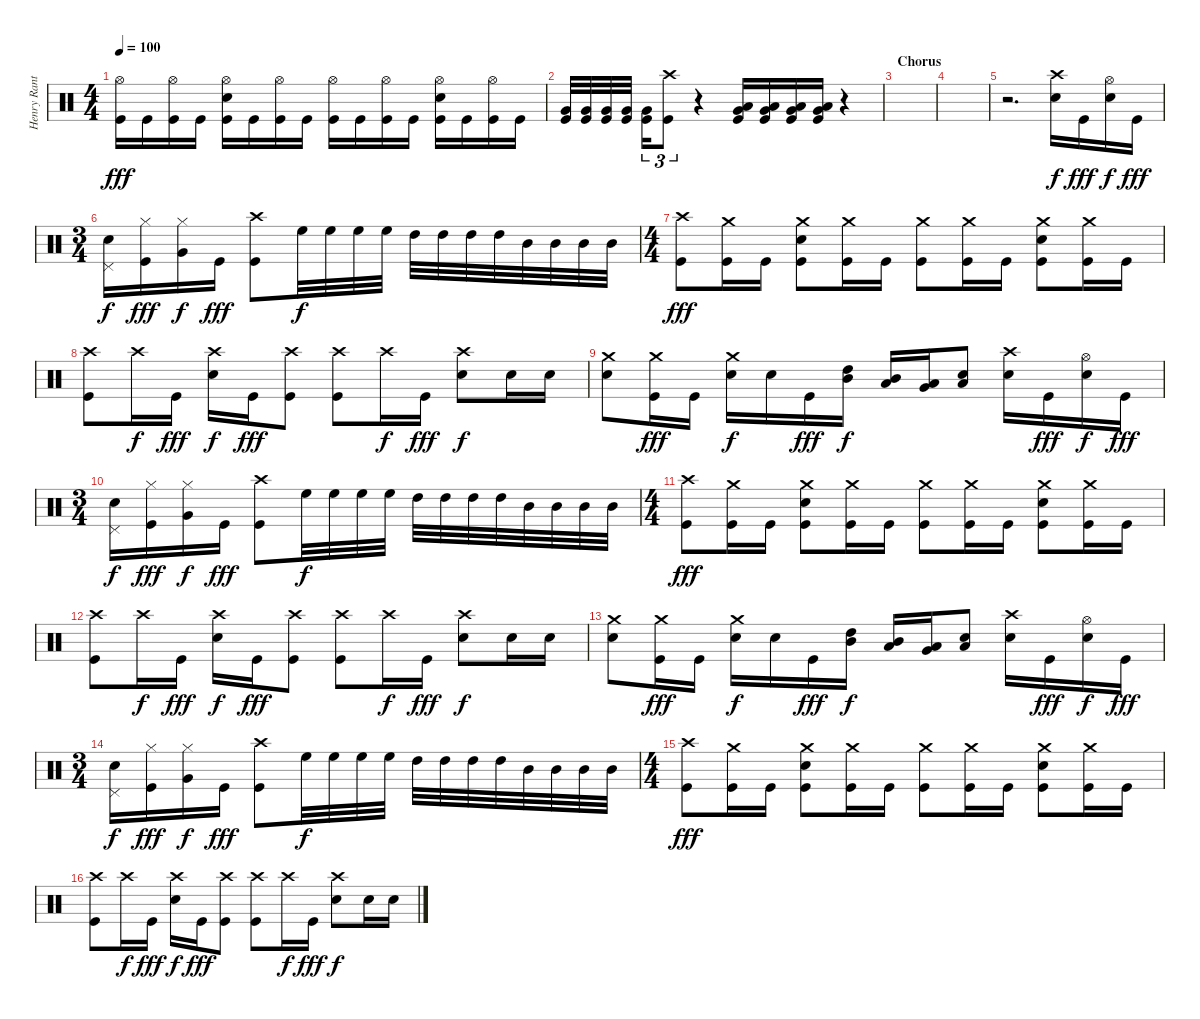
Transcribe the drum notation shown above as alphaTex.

\track ("Henry Ranta" "Henry Rant") {instrument percussion}
\staff {score}
\articulation defaults
\ts (4 4)
\tempo 100
\clef neutral
\ks c
("Hi-Hat (open)" "Kick (hit)").16{dy fff} "Kick (hit)".16 ("Hi-Hat (open)" "Kick (hit)").16 "Kick (hit)".16 ("Hi-Hat (open)" "Electric Snare (hit)" "Kick (hit)").16 "Kick (hit)".16 ("Hi-Hat (open)" "Kick (hit)").16 "Kick (hit)".16 ("Hi-Hat (open)" "Kick (hit)").16 "Kick (hit)".16 ("Hi-Hat (open)" "Kick (hit)").16 "Kick (hit)".16 ("Hi-Hat (open)" "Electric Snare (hit)" "Kick (hit)").16 "Kick (hit)".16 ("Hi-Hat (open)" "Kick (hit)").16 "Kick (hit)".16 |
("Very Low Tom (hit)" "Kick (hit)").32 ("Very Low Tom (hit)" "Kick (hit)").32 ("Very Low Tom (hit)" "Kick (hit)").32 ("Very Low Tom (hit)" "Kick (hit)").32 ("Very Low Tom (hit)" "Kick (hit)").16{tu (3 2)} ("Crash high (hit)" "Kick (hit)").8{tu (3 2)} r.4 ("Low Floor Tom (hit)" "Very Low Tom (hit)" "Kick (hit)").16 ("Low Floor Tom (hit)" "Very Low Tom (hit)" "Kick (hit)").16 ("Low Floor Tom (hit)" "Very Low Tom (hit)" "Kick (hit)").16 ("Low Floor Tom (hit)" "Very Low Tom (hit)" "Kick (hit)").16 r.4 |
\section ("" "Chorus")
|
|
r.2{d} ("Crash high (hit)" "Electric Snare (hit)").16{dy f} "Kick (hit)".16{dy fff} ("Hi-Hat (open)" "Electric Snare (hit)").16{dy f} "Kick (hit)".16{dy fff} |
\ts (3 4)
("Pedal Hi-Hat (hit)" "Electric Snare (hit)").16{dy f} ("Hi-Hat (closed)" "Kick (hit)").16{dy fff} ("Hi-Hat (closed)" "Very Low Tom (hit)").16{dy f} "Kick (hit)".16{dy fff} ("Crash high (hit)" "Kick (hit)").8 "High Floor Tom (hit)".32{dy f} "High Floor Tom (hit)".32 "High Floor Tom (hit)".32 "High Floor Tom (hit)".32 "High Tom (hit)".32 "High Tom (hit)".32 "High Tom (hit)".32 "High Tom (hit)".32 "Mid Tom (hit)".32 "Mid Tom (hit)".32 "Mid Tom (hit)".32 "Mid Tom (hit)".32 |
\ts (4 4)
("Crash high (hit)" "Kick (hit)").8{dy fff} ("Crash medium (hit)" "Kick (hit)").16 "Kick (hit)".16 ("Crash medium (hit)" "Electric Snare (hit)" "Kick (hit)").8 ("Crash medium (hit)" "Kick (hit)").16 "Kick (hit)".16 ("Crash medium (hit)" "Kick (hit)").8 ("Crash medium (hit)" "Kick (hit)").16 "Kick (hit)".16 ("Crash medium (hit)" "Electric Snare (hit)" "Kick (hit)").8 ("Crash medium (hit)" "Kick (hit)").16 "Kick (hit)".16 |
("Crash high (hit)" "Kick (hit)").8 "Crash high (hit)".16{dy f} "Kick (hit)".16{dy fff} ("Crash high (hit)" "Electric Snare (hit)").16{dy f} "Kick (hit)".16{dy fff} ("Crash high (hit)" "Kick (hit)").8 ("Crash high (hit)" "Kick (hit)").8 "Crash high (hit)".16{dy f} "Kick (hit)".16{dy fff} ("Crash high (hit)" "Electric Snare (hit)").8{dy f} "Electric Snare (hit)".16 "Electric Snare (hit)".16 |
("Crash medium (hit)" "Electric Snare (hit)").8 ("Crash medium (hit)" "Kick (hit)").16{dy fff} "Kick (hit)".16 ("Crash medium (hit)" "Electric Snare (hit)").16{dy f} "Electric Snare (hit)".16 "Kick (hit)".16{dy fff} ("Mid Tom (hit)" "High Tom (hit)").16{dy f} ("Mid Tom (hit)" "Low Tom (hit)").16 ("Very Low Tom (hit)" "Low Tom (hit)").16 ("Low Floor Tom (hit)" "Electric Snare (hit)").8 ("Crash high (hit)" "Electric Snare (hit)").16 "Kick (hit)".16{dy fff} ("Hi-Hat (open)" "Electric Snare (hit)").16{dy f} "Kick (hit)".16{dy fff} |
\ts (3 4)
("Pedal Hi-Hat (hit)" "Electric Snare (hit)").16{dy f} ("Hi-Hat (closed)" "Kick (hit)").16{dy fff} ("Hi-Hat (closed)" "Very Low Tom (hit)").16{dy f} "Kick (hit)".16{dy fff} ("Crash high (hit)" "Kick (hit)").8 "High Floor Tom (hit)".32{dy f} "High Floor Tom (hit)".32 "High Floor Tom (hit)".32 "High Floor Tom (hit)".32 "High Tom (hit)".32 "High Tom (hit)".32 "High Tom (hit)".32 "High Tom (hit)".32 "Mid Tom (hit)".32 "Mid Tom (hit)".32 "Mid Tom (hit)".32 "Mid Tom (hit)".32 |
\ts (4 4)
("Crash high (hit)" "Kick (hit)").8{dy fff} ("Crash medium (hit)" "Kick (hit)").16 "Kick (hit)".16 ("Crash medium (hit)" "Electric Snare (hit)" "Kick (hit)").8 ("Crash medium (hit)" "Kick (hit)").16 "Kick (hit)".16 ("Crash medium (hit)" "Kick (hit)").8 ("Crash medium (hit)" "Kick (hit)").16 "Kick (hit)".16 ("Crash medium (hit)" "Electric Snare (hit)" "Kick (hit)").8 ("Crash medium (hit)" "Kick (hit)").16 "Kick (hit)".16 |
("Crash high (hit)" "Kick (hit)").8 "Crash high (hit)".16{dy f} "Kick (hit)".16{dy fff} ("Crash high (hit)" "Electric Snare (hit)").16{dy f} "Kick (hit)".16{dy fff} ("Crash high (hit)" "Kick (hit)").8 ("Crash high (hit)" "Kick (hit)").8 "Crash high (hit)".16{dy f} "Kick (hit)".16{dy fff} ("Crash high (hit)" "Electric Snare (hit)").8{dy f} "Electric Snare (hit)".16 "Electric Snare (hit)".16 |
("Crash medium (hit)" "Electric Snare (hit)").8 ("Crash medium (hit)" "Kick (hit)").16{dy fff} "Kick (hit)".16 ("Crash medium (hit)" "Electric Snare (hit)").16{dy f} "Electric Snare (hit)".16 "Kick (hit)".16{dy fff} ("Mid Tom (hit)" "High Tom (hit)").16{dy f} ("Mid Tom (hit)" "Low Tom (hit)").16 ("Very Low Tom (hit)" "Low Tom (hit)").16 ("Low Floor Tom (hit)" "Electric Snare (hit)").8 ("Crash high (hit)" "Electric Snare (hit)").16 "Kick (hit)".16{dy fff} ("Hi-Hat (open)" "Electric Snare (hit)").16{dy f} "Kick (hit)".16{dy fff} |
\ts (3 4)
("Pedal Hi-Hat (hit)" "Electric Snare (hit)").16{dy f} ("Hi-Hat (closed)" "Kick (hit)").16{dy fff} ("Hi-Hat (closed)" "Very Low Tom (hit)").16{dy f} "Kick (hit)".16{dy fff} ("Crash high (hit)" "Kick (hit)").8 "High Floor Tom (hit)".32{dy f} "High Floor Tom (hit)".32 "High Floor Tom (hit)".32 "High Floor Tom (hit)".32 "High Tom (hit)".32 "High Tom (hit)".32 "High Tom (hit)".32 "High Tom (hit)".32 "Mid Tom (hit)".32 "Mid Tom (hit)".32 "Mid Tom (hit)".32 "Mid Tom (hit)".32 |
\ts (4 4)
("Crash high (hit)" "Kick (hit)").8{dy fff} ("Crash medium (hit)" "Kick (hit)").16 "Kick (hit)".16 ("Crash medium (hit)" "Electric Snare (hit)" "Kick (hit)").8 ("Crash medium (hit)" "Kick (hit)").16 "Kick (hit)".16 ("Crash medium (hit)" "Kick (hit)").8 ("Crash medium (hit)" "Kick (hit)").16 "Kick (hit)".16 ("Crash medium (hit)" "Electric Snare (hit)" "Kick (hit)").8 ("Crash medium (hit)" "Kick (hit)").16 "Kick (hit)".16 |
("Crash high (hit)" "Kick (hit)").8 "Crash high (hit)".16{dy f} "Kick (hit)".16{dy fff} ("Crash high (hit)" "Electric Snare (hit)").16{dy f} "Kick (hit)".16{dy fff} ("Crash high (hit)" "Kick (hit)").8 ("Crash high (hit)" "Kick (hit)").8 "Crash high (hit)".16{dy f} "Kick (hit)".16{dy fff} ("Crash high (hit)" "Electric Snare (hit)").8{dy f} "Electric Snare (hit)".16 "Electric Snare (hit)".16
